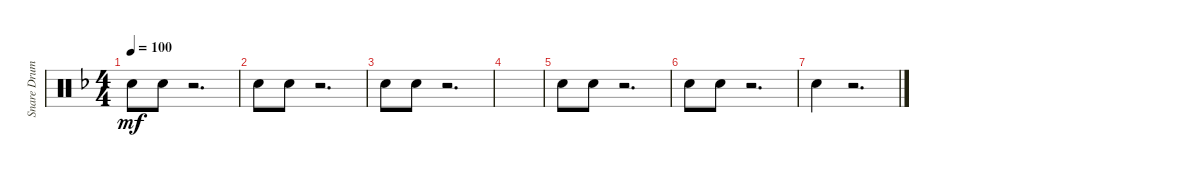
\track ("Snare Drum" "Snare Drum") {instrument percussion}
\staff {score}
\articulation defaults
\ts (4 4)
\tempo 100
\clef neutral
\ks dminor "Electric Snare (hit)".8{dy mf} "Electric Snare (hit)".8
r.2{d} |
"Electric Snare (hit)".8 "Electric Snare (hit)".8 r.2{d} |
"Electric Snare (hit)".8 "Electric Snare (hit)".8 r.2{d} |
|
"Electric Snare (hit)".8 "Electric Snare (hit)".8 r.2{d} |
"Electric Snare (hit)".8 "Electric Snare (hit)".8 r.2{d} |
"Electric Snare (hit)".4 r.2{d}
